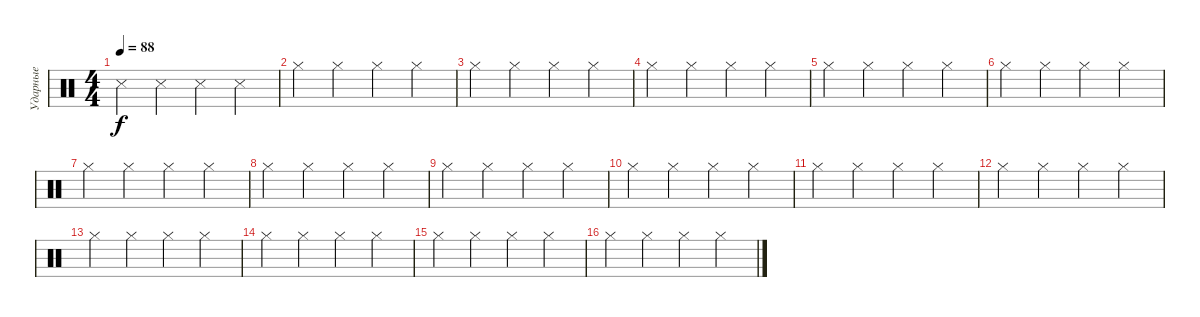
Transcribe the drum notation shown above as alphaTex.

\track ("Ударные" "Ударные") {instrument percussion}
\staff {score}
\articulation defaults
\ts (4 4)
\tempo 88
\clef neutral
\ks c "Metronome (hit)".4{dy f} "Metronome (hit)".4 "Metronome (hit)".4 "Metronome (hit)".4
|
"Hi-Hat (closed)".4 "Hi-Hat (closed)".4 "Hi-Hat (closed)".4 "Hi-Hat (closed)".4 |
"Hi-Hat (closed)".4 "Hi-Hat (closed)".4 "Hi-Hat (closed)".4 "Hi-Hat (closed)".4 |
"Hi-Hat (closed)".4 "Hi-Hat (closed)".4 "Hi-Hat (closed)".4 "Hi-Hat (closed)".4 |
"Hi-Hat (closed)".4 "Hi-Hat (closed)".4 "Hi-Hat (closed)".4 "Hi-Hat (closed)".4 |
"Hi-Hat (closed)".4 "Hi-Hat (closed)".4 "Hi-Hat (closed)".4 "Hi-Hat (closed)".4 |
"Hi-Hat (closed)".4 "Hi-Hat (closed)".4 "Hi-Hat (closed)".4 "Hi-Hat (closed)".4 |
"Hi-Hat (closed)".4 "Hi-Hat (closed)".4 "Hi-Hat (closed)".4 "Hi-Hat (closed)".4 |
"Hi-Hat (closed)".4 "Hi-Hat (closed)".4 "Hi-Hat (closed)".4 "Hi-Hat (closed)".4 |
"Hi-Hat (closed)".4 "Hi-Hat (closed)".4 "Hi-Hat (closed)".4 "Hi-Hat (closed)".4 |
"Hi-Hat (closed)".4 "Hi-Hat (closed)".4 "Hi-Hat (closed)".4 "Hi-Hat (closed)".4 |
"Hi-Hat (closed)".4 "Hi-Hat (closed)".4 "Hi-Hat (closed)".4 "Hi-Hat (closed)".4 |
"Hi-Hat (closed)".4 "Hi-Hat (closed)".4 "Hi-Hat (closed)".4 "Hi-Hat (closed)".4 |
"Hi-Hat (closed)".4 "Hi-Hat (closed)".4 "Hi-Hat (closed)".4 "Hi-Hat (closed)".4 |
"Hi-Hat (closed)".4 "Hi-Hat (closed)".4 "Hi-Hat (closed)".4 "Hi-Hat (closed)".4 |
"Hi-Hat (closed)".4 "Hi-Hat (closed)".4 "Hi-Hat (closed)".4 "Hi-Hat (closed)".4
